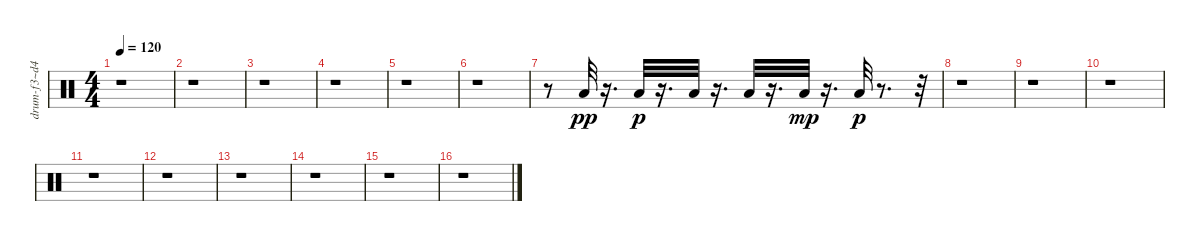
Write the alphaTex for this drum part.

\track ("drum-f3~d4" "drum-f3~d4") {instrument percussion}
\staff {score}
\articulation defaults
\ts (4 4)
\tempo 120
\clef neutral
\ks c
r.1{dy mp} |
r.1 |
r.1 |
r.1 |
r.1 |
r.1 |
r.8 "Low Tom (hit)".32{dy pp} r.16{d} "Low Tom (hit)".32{dy p} r.16{d} "Low Tom (hit)".32 r.16{d} "Low Tom (hit)".32 r.16{d} "Low Tom (hit)".32{dy mp} r.16{d} "Low Tom (hit)".32{dy p} r.8{d} r.32 |
r.1 |
r.1 |
r.1 |
r.1 |
r.1 |
r.1 |
r.1 |
r.1 |
r.1
